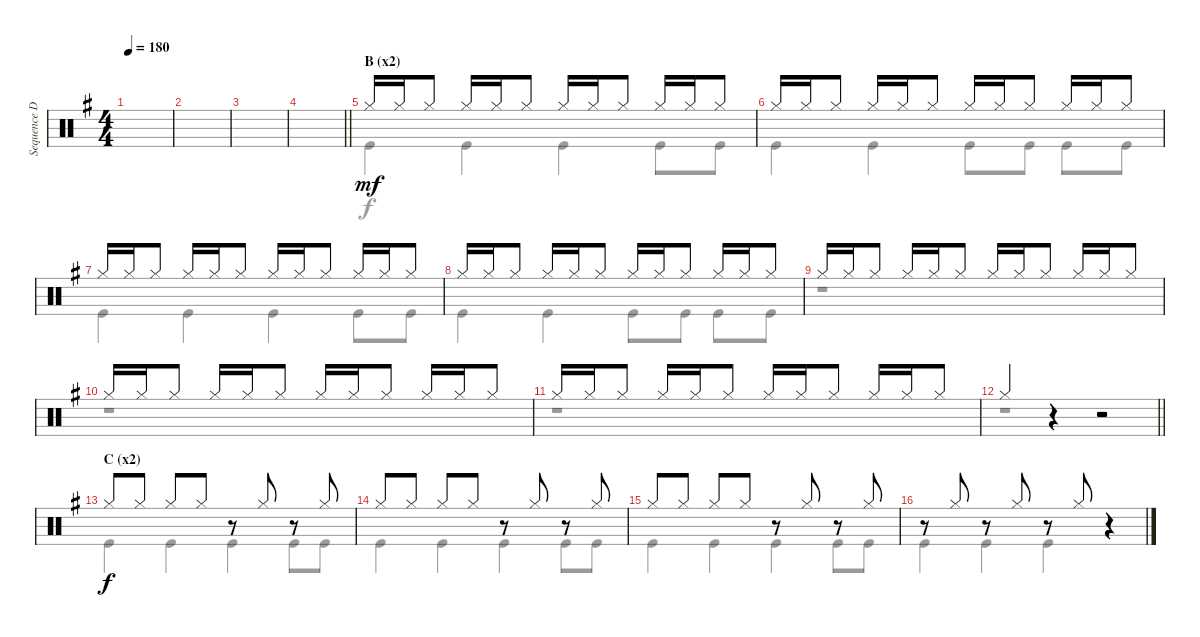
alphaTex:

\track ("Sequence Drums" "Sequence D") {instrument percussion}
\staff {score}
\articulation defaults
\voice
\ts (4 4)
\tempo 180
\clef neutral
\ks g
|
|
|
\barLineRight lightlight
|
\section ("" "B (x2)")
"Hi-Hat (closed)".16{dy mf} "Hi-Hat (closed)".16 "Hi-Hat (closed)".8 "Hi-Hat (closed)".16 "Hi-Hat (closed)".16 "Hi-Hat (closed)".8 "Hi-Hat (closed)".16 "Hi-Hat (closed)".16 "Hi-Hat (closed)".8 "Hi-Hat (closed)".16 "Hi-Hat (closed)".16 "Hi-Hat (closed)".8 |
"Hi-Hat (closed)".16 "Hi-Hat (closed)".16 "Hi-Hat (closed)".8 "Hi-Hat (closed)".16 "Hi-Hat (closed)".16 "Hi-Hat (closed)".8 "Hi-Hat (closed)".16 "Hi-Hat (closed)".16 "Hi-Hat (closed)".8 "Hi-Hat (closed)".16 "Hi-Hat (closed)".16 "Hi-Hat (closed)".8 |
"Hi-Hat (closed)".16 "Hi-Hat (closed)".16 "Hi-Hat (closed)".8 "Hi-Hat (closed)".16 "Hi-Hat (closed)".16 "Hi-Hat (closed)".8 "Hi-Hat (closed)".16 "Hi-Hat (closed)".16 "Hi-Hat (closed)".8 "Hi-Hat (closed)".16 "Hi-Hat (closed)".16 "Hi-Hat (closed)".8 |
"Hi-Hat (closed)".16 "Hi-Hat (closed)".16 "Hi-Hat (closed)".8 "Hi-Hat (closed)".16 "Hi-Hat (closed)".16 "Hi-Hat (closed)".8 "Hi-Hat (closed)".16 "Hi-Hat (closed)".16 "Hi-Hat (closed)".8 "Hi-Hat (closed)".16 "Hi-Hat (closed)".16 "Hi-Hat (closed)".8 |
"Hi-Hat (closed)".16 "Hi-Hat (closed)".16 "Hi-Hat (closed)".8 "Hi-Hat (closed)".16 "Hi-Hat (closed)".16 "Hi-Hat (closed)".8 "Hi-Hat (closed)".16 "Hi-Hat (closed)".16 "Hi-Hat (closed)".8 "Hi-Hat (closed)".16 "Hi-Hat (closed)".16 "Hi-Hat (closed)".8 |
"Hi-Hat (closed)".16 "Hi-Hat (closed)".16 "Hi-Hat (closed)".8 "Hi-Hat (closed)".16 "Hi-Hat (closed)".16 "Hi-Hat (closed)".8 "Hi-Hat (closed)".16 "Hi-Hat (closed)".16 "Hi-Hat (closed)".8 "Hi-Hat (closed)".16 "Hi-Hat (closed)".16 "Hi-Hat (closed)".8 |
"Hi-Hat (closed)".16 "Hi-Hat (closed)".16 "Hi-Hat (closed)".8 "Hi-Hat (closed)".16 "Hi-Hat (closed)".16 "Hi-Hat (closed)".8 "Hi-Hat (closed)".16 "Hi-Hat (closed)".16 "Hi-Hat (closed)".8 "Hi-Hat (closed)".16 "Hi-Hat (closed)".16 "Hi-Hat (closed)".8 |
\barLineRight lightlight "Hi-Hat (closed)".4
r.4 r.2 |
\section ("" "C (x2)")
"Hi-Hat (closed)".8{dy f} "Hi-Hat (closed)".8 "Hi-Hat (closed)".8 "Hi-Hat (closed)".8 r.8 "Hi-Hat (closed)".8 r.8 "Hi-Hat (closed)".8 |
"Hi-Hat (closed)".8 "Hi-Hat (closed)".8 "Hi-Hat (closed)".8 "Hi-Hat (closed)".8 r.8 "Hi-Hat (closed)".8 r.8 "Hi-Hat (closed)".8 |
"Hi-Hat (closed)".8 "Hi-Hat (closed)".8 "Hi-Hat (closed)".8 "Hi-Hat (closed)".8 r.8 "Hi-Hat (closed)".8 r.8 "Hi-Hat (closed)".8 |
r.8 "Hi-Hat (closed)".8 r.8 "Hi-Hat (closed)".8 r.8 "Hi-Hat (closed)".8 r.4
\voice
\clef neutral
\ottava regular
\simile none
\ks g
|
|
|
\barLineRight lightlight
|
"Kick (hit)".4 "Kick (hit)".4 "Kick (hit)".4 "Kick (hit)".8 "Kick (hit)".8 |
"Kick (hit)".4 "Kick (hit)".4 "Kick (hit)".8 "Kick (hit)".8 "Kick (hit)".8 "Kick (hit)".8 |
"Kick (hit)".4 "Kick (hit)".4 "Kick (hit)".4 "Kick (hit)".8 "Kick (hit)".8 |
"Kick (hit)".4 "Kick (hit)".4 "Kick (hit)".8 "Kick (hit)".8 "Kick (hit)".8 "Kick (hit)".8 |
r.1 |
r.1 |
r.1 |
\barLineRight lightlight
r.1 |
"Kick (hit)".4 "Kick (hit)".4 "Kick (hit)".4 "Kick (hit)".8 "Kick (hit)".8 |
"Kick (hit)".4 "Kick (hit)".4 "Kick (hit)".4 "Kick (hit)".8 "Kick (hit)".8 |
"Kick (hit)".4 "Kick (hit)".4 "Kick (hit)".4 "Kick (hit)".8 "Kick (hit)".8 |
"Kick (hit)".4 "Kick (hit)".4 "Kick (hit)".4 r.4
